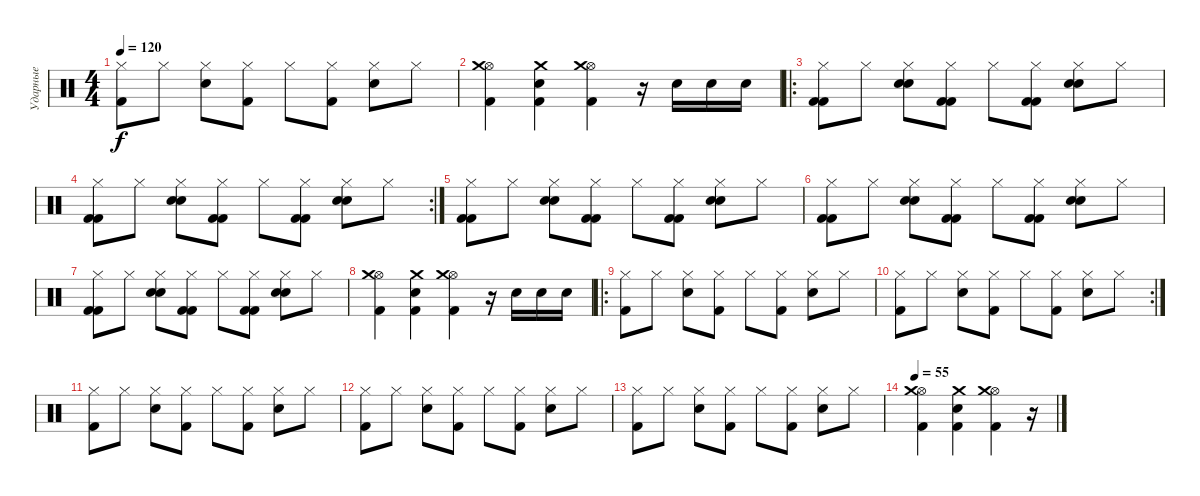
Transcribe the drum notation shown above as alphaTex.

\track ("Ударные" "Ударные") {instrument percussion}
\staff {score}
\articulation defaults
\ts (4 4)
\tempo 120
\clef neutral
\ks c
("Hi-Hat (closed)" "Kick (hit) 2").8{dy f} "Hi-Hat (closed)".8 ("Hi-Hat (closed)" "Electric Snare (hit)").8 ("Hi-Hat (closed)" "Kick (hit) 2").8 "Hi-Hat (closed)".8 ("Hi-Hat (closed)" "Kick (hit) 2").8 ("Hi-Hat (closed)" "Electric Snare (hit)").8 "Hi-Hat (closed)".8 |
("Hi-Hat (open)" "Crash medium (hit)" "Kick (hit) 2").4 ("Crash medium (hit)" "Kick (hit) 2" "Electric Snare (hit)").4 ("Hi-Hat (open)" "Crash medium (hit)" "Kick (hit) 2").4 r.16 "Electric Snare (hit)".16 "Electric Snare (hit)".16 "Electric Snare (hit)".16 |
\ro
("Hi-Hat (closed)" "Kick (hit) 2" "Kick (hit) 2").8 "Hi-Hat (closed)".8 ("Hi-Hat (closed)" "Electric Snare (hit)" "Snare (hit) 2").8 ("Hi-Hat (closed)" "Kick (hit) 2" "Kick (hit) 2").8 "Hi-Hat (closed)".8 ("Hi-Hat (closed)" "Kick (hit) 2" "Kick (hit) 2").8 ("Hi-Hat (closed)" "Electric Snare (hit)" "Snare (hit) 2").8 "Hi-Hat (closed)".8 |
\rc 2
("Hi-Hat (closed)" "Kick (hit) 2" "Kick (hit) 2").8 "Hi-Hat (closed)".8 ("Hi-Hat (closed)" "Electric Snare (hit)" "Snare (hit) 2").8 ("Hi-Hat (closed)" "Kick (hit) 2" "Kick (hit) 2").8 "Hi-Hat (closed)".8 ("Hi-Hat (closed)" "Kick (hit) 2" "Kick (hit) 2").8 ("Hi-Hat (closed)" "Electric Snare (hit)" "Snare (hit) 2").8 "Hi-Hat (closed)".8 |
("Hi-Hat (closed)" "Kick (hit) 2" "Kick (hit) 2").8 "Hi-Hat (closed)".8 ("Hi-Hat (closed)" "Electric Snare (hit)" "Snare (hit) 2").8 ("Hi-Hat (closed)" "Kick (hit) 2" "Kick (hit) 2").8 "Hi-Hat (closed)".8 ("Hi-Hat (closed)" "Kick (hit) 2" "Kick (hit) 2").8 ("Hi-Hat (closed)" "Electric Snare (hit)" "Snare (hit) 2").8 "Hi-Hat (closed)".8 |
("Hi-Hat (closed)" "Kick (hit) 2" "Kick (hit) 2").8 "Hi-Hat (closed)".8 ("Hi-Hat (closed)" "Electric Snare (hit)" "Snare (hit) 2").8 ("Hi-Hat (closed)" "Kick (hit) 2" "Kick (hit) 2").8 "Hi-Hat (closed)".8 ("Hi-Hat (closed)" "Kick (hit) 2" "Kick (hit) 2").8 ("Hi-Hat (closed)" "Electric Snare (hit)" "Snare (hit) 2").8 "Hi-Hat (closed)".8 |
("Hi-Hat (closed)" "Kick (hit) 2" "Kick (hit) 2").8 "Hi-Hat (closed)".8 ("Hi-Hat (closed)" "Electric Snare (hit)" "Snare (hit) 2").8 ("Hi-Hat (closed)" "Kick (hit) 2" "Kick (hit) 2").8 "Hi-Hat (closed)".8 ("Hi-Hat (closed)" "Kick (hit) 2" "Kick (hit) 2").8 ("Hi-Hat (closed)" "Electric Snare (hit)" "Snare (hit) 2").8 "Hi-Hat (closed)".8 |
("Hi-Hat (open)" "Crash medium (hit)" "Kick (hit) 2").4 ("Crash medium (hit)" "Kick (hit) 2" "Electric Snare (hit)").4 ("Hi-Hat (open)" "Crash medium (hit)" "Kick (hit) 2").4 r.16 "Electric Snare (hit)".16 "Electric Snare (hit)".16 "Electric Snare (hit)".16 |
\ro
("Hi-Hat (closed)" "Kick (hit) 2").8 "Hi-Hat (closed)".8 ("Hi-Hat (closed)" "Electric Snare (hit)").8 ("Hi-Hat (closed)" "Kick (hit) 2").8 "Hi-Hat (closed)".8 ("Hi-Hat (closed)" "Kick (hit) 2").8 ("Hi-Hat (closed)" "Electric Snare (hit)").8 "Hi-Hat (closed)".8 |
\rc 2
("Hi-Hat (closed)" "Kick (hit) 2").8 "Hi-Hat (closed)".8 ("Hi-Hat (closed)" "Electric Snare (hit)").8 ("Hi-Hat (closed)" "Kick (hit) 2").8 "Hi-Hat (closed)".8 ("Hi-Hat (closed)" "Kick (hit) 2").8 ("Hi-Hat (closed)" "Electric Snare (hit)").8 "Hi-Hat (closed)".8 |
("Hi-Hat (closed)" "Kick (hit) 2").8 "Hi-Hat (closed)".8 ("Hi-Hat (closed)" "Electric Snare (hit)").8 ("Hi-Hat (closed)" "Kick (hit) 2").8 "Hi-Hat (closed)".8 ("Hi-Hat (closed)" "Kick (hit) 2").8 ("Hi-Hat (closed)" "Electric Snare (hit)").8 "Hi-Hat (closed)".8 |
("Hi-Hat (closed)" "Kick (hit) 2").8 "Hi-Hat (closed)".8 ("Hi-Hat (closed)" "Electric Snare (hit)").8 ("Hi-Hat (closed)" "Kick (hit) 2").8 "Hi-Hat (closed)".8 ("Hi-Hat (closed)" "Kick (hit) 2").8 ("Hi-Hat (closed)" "Electric Snare (hit)").8 "Hi-Hat (closed)".8 |
("Hi-Hat (closed)" "Kick (hit) 2").8 "Hi-Hat (closed)".8 ("Hi-Hat (closed)" "Electric Snare (hit)").8 ("Hi-Hat (closed)" "Kick (hit) 2").8 "Hi-Hat (closed)".8 ("Hi-Hat (closed)" "Kick (hit) 2").8 ("Hi-Hat (closed)" "Electric Snare (hit)").8 "Hi-Hat (closed)".8 |
\tempo 55
("Hi-Hat (open)" "Crash medium (hit)" "Kick (hit) 2").4 ("Crash medium (hit)" "Kick (hit) 2" "Electric Snare (hit)").4 ("Hi-Hat (open)" "Crash medium (hit)" "Kick (hit) 2").4 r.16
